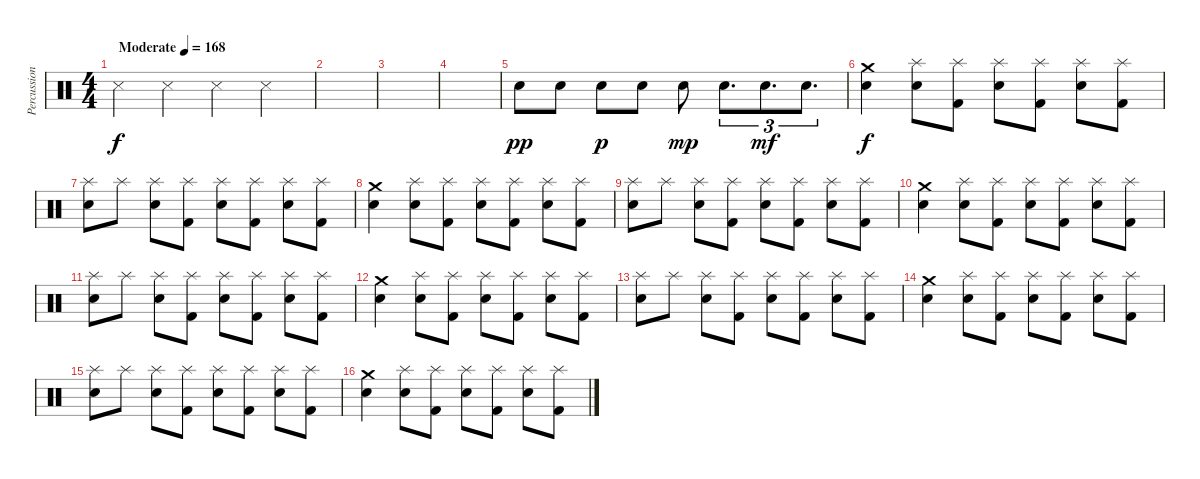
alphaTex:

\track ("Percussion" "Percussion") {instrument percussion}
\staff {score}
\articulation defaults
\ts (4 4)
\tempo (168 "Moderate")
\clef neutral
\ks c "Snare (side stick) 3".4{dy f} "Snare (side stick) 3".4 "Snare (side stick) 3".4 "Snare (side stick) 3".4
|
|
|
|
"Snare (hit) 2".8{dy pp} "Snare (hit) 2".8 "Snare (hit) 2".8{dy p} "Snare (hit) 2".8 "Snare (hit) 2".8{dy mp} "Snare (hit) 2".8{d tu (3 2)} "Snare (hit) 2".8{d tu (3 2) dy mf} "Snare (hit) 2".8{d tu (3 2)} |
("Crash medium (hit)" "Snare (hit) 2").4{dy f} ("Splash (hit)" "Snare (hit) 2").8 ("Splash (hit)" "Kick (hit) 2").8 ("Splash (hit)" "Snare (hit) 2").8 ("Splash (hit)" "Kick (hit) 2").8 ("Splash (hit)" "Snare (hit) 2").8 ("Splash (hit)" "Kick (hit) 2").8 |
("Splash (hit)" "Snare (hit) 2").8 "Splash (hit)".8 ("Splash (hit)" "Snare (hit) 2").8 ("Splash (hit)" "Kick (hit) 2").8 ("Splash (hit)" "Snare (hit) 2").8 ("Splash (hit)" "Kick (hit) 2").8 ("Splash (hit)" "Snare (hit) 2").8 ("Splash (hit)" "Kick (hit) 2").8 |
("Crash medium (hit)" "Snare (hit) 2").4 ("Splash (hit)" "Snare (hit) 2").8 ("Splash (hit)" "Kick (hit) 2").8 ("Splash (hit)" "Snare (hit) 2").8 ("Splash (hit)" "Kick (hit) 2").8 ("Splash (hit)" "Snare (hit) 2").8 ("Splash (hit)" "Kick (hit) 2").8 |
("Splash (hit)" "Snare (hit) 2").8 "Splash (hit)".8 ("Splash (hit)" "Snare (hit) 2").8 ("Splash (hit)" "Kick (hit) 2").8 ("Splash (hit)" "Snare (hit) 2").8 ("Splash (hit)" "Kick (hit) 2").8 ("Splash (hit)" "Snare (hit) 2").8 ("Splash (hit)" "Kick (hit) 2").8 |
("Crash medium (hit)" "Snare (hit) 2").4 ("Splash (hit)" "Snare (hit) 2").8 ("Splash (hit)" "Kick (hit) 2").8 ("Splash (hit)" "Snare (hit) 2").8 ("Splash (hit)" "Kick (hit) 2").8 ("Splash (hit)" "Snare (hit) 2").8 ("Splash (hit)" "Kick (hit) 2").8 |
("Splash (hit)" "Snare (hit) 2").8 "Splash (hit)".8 ("Splash (hit)" "Snare (hit) 2").8 ("Splash (hit)" "Kick (hit) 2").8 ("Splash (hit)" "Snare (hit) 2").8 ("Splash (hit)" "Kick (hit) 2").8 ("Splash (hit)" "Snare (hit) 2").8 ("Splash (hit)" "Kick (hit) 2").8 |
("Crash medium (hit)" "Snare (hit) 2").4 ("Splash (hit)" "Snare (hit) 2").8 ("Splash (hit)" "Kick (hit) 2").8 ("Splash (hit)" "Snare (hit) 2").8 ("Splash (hit)" "Kick (hit) 2").8 ("Splash (hit)" "Snare (hit) 2").8 ("Splash (hit)" "Kick (hit) 2").8 |
("Splash (hit)" "Snare (hit) 2").8 "Splash (hit)".8 ("Splash (hit)" "Snare (hit) 2").8 ("Splash (hit)" "Kick (hit) 2").8 ("Splash (hit)" "Snare (hit) 2").8 ("Splash (hit)" "Kick (hit) 2").8 ("Splash (hit)" "Snare (hit) 2").8 ("Splash (hit)" "Kick (hit) 2").8 |
("Crash medium (hit)" "Snare (hit) 2").4 ("Splash (hit)" "Snare (hit) 2").8 ("Splash (hit)" "Kick (hit) 2").8 ("Splash (hit)" "Snare (hit) 2").8 ("Splash (hit)" "Kick (hit) 2").8 ("Splash (hit)" "Snare (hit) 2").8 ("Splash (hit)" "Kick (hit) 2").8 |
("Splash (hit)" "Snare (hit) 2").8 "Splash (hit)".8 ("Splash (hit)" "Snare (hit) 2").8 ("Splash (hit)" "Kick (hit) 2").8 ("Splash (hit)" "Snare (hit) 2").8 ("Splash (hit)" "Kick (hit) 2").8 ("Splash (hit)" "Snare (hit) 2").8 ("Splash (hit)" "Kick (hit) 2").8 |
("Crash medium (hit)" "Snare (hit) 2").4 ("Splash (hit)" "Snare (hit) 2").8 ("Splash (hit)" "Kick (hit) 2").8 ("Splash (hit)" "Snare (hit) 2").8 ("Splash (hit)" "Kick (hit) 2").8 ("Splash (hit)" "Snare (hit) 2").8 ("Splash (hit)" "Kick (hit) 2").8
